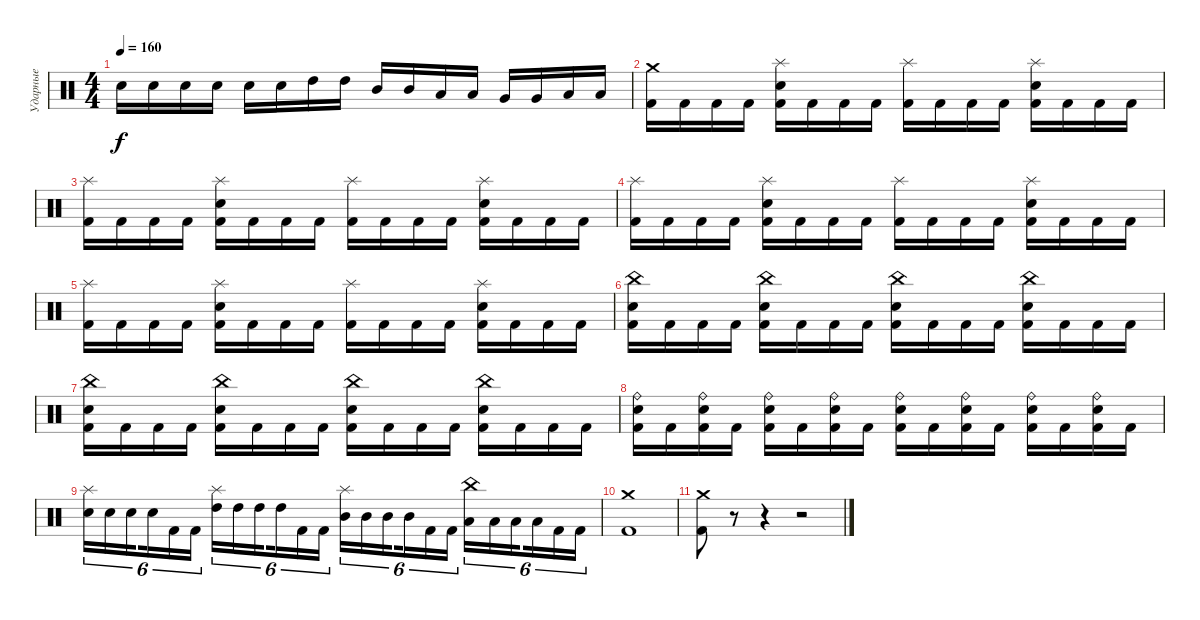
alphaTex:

\track ("Ударные" "Ударные") {instrument percussion}
\staff {score}
\articulation defaults
\ts (4 4)
\tempo 160
\clef neutral
\ks c "Electric Snare (hit)".16{dy f} "Electric Snare (hit)".16 "Electric Snare (hit)".16 "Electric Snare (hit)".16 "Electric Snare (hit)".16 "Electric Snare (hit)".16 "High Tom (hit)".16 "High Tom (hit)".16 "Mid Tom (hit)".16 "Mid Tom (hit)".16 "Low Tom (hit)".16 "Low Tom (hit)".16 "Very Low Tom (hit)".16 "Very Low Tom (hit)".16 "Low Floor Tom (hit)".16 "Low Floor Tom (hit)".16
|
("Crash medium (hit)" "Kick (hit) 2").16 "Kick (hit) 2".16 "Kick (hit) 2".16 "Kick (hit) 2".16 ("Splash (hit)" "Electric Snare (hit)" "Kick (hit) 2").16 "Kick (hit) 2".16 "Kick (hit) 2".16 "Kick (hit) 2".16 ("Splash (hit)" "Kick (hit) 2").16 "Kick (hit) 2".16 "Kick (hit) 2".16 "Kick (hit) 2".16 ("Splash (hit)" "Electric Snare (hit)" "Kick (hit) 2").16 "Kick (hit) 2".16 "Kick (hit) 2".16 "Kick (hit) 2".16 |
("Splash (hit)" "Kick (hit) 2").16 "Kick (hit) 2".16 "Kick (hit) 2".16 "Kick (hit) 2".16 ("Splash (hit)" "Electric Snare (hit)" "Kick (hit) 2").16 "Kick (hit) 2".16 "Kick (hit) 2".16 "Kick (hit) 2".16 ("Splash (hit)" "Kick (hit) 2").16 "Kick (hit) 2".16 "Kick (hit) 2".16 "Kick (hit) 2".16 ("Splash (hit)" "Electric Snare (hit)" "Kick (hit) 2").16 "Kick (hit) 2".16 "Kick (hit) 2".16 "Kick (hit) 2".16 |
("Splash (hit)" "Kick (hit) 2").16 "Kick (hit) 2".16 "Kick (hit) 2".16 "Kick (hit) 2".16 ("Splash (hit)" "Electric Snare (hit)" "Kick (hit) 2").16 "Kick (hit) 2".16 "Kick (hit) 2".16 "Kick (hit) 2".16 ("Splash (hit)" "Kick (hit) 2").16 "Kick (hit) 2".16 "Kick (hit) 2".16 "Kick (hit) 2".16 ("Splash (hit)" "Electric Snare (hit)" "Kick (hit) 2").16 "Kick (hit) 2".16 "Kick (hit) 2".16 "Kick (hit) 2".16 |
("Splash (hit)" "Kick (hit) 2").16 "Kick (hit) 2".16 "Kick (hit) 2".16 "Kick (hit) 2".16 ("Splash (hit)" "Electric Snare (hit)" "Kick (hit) 2").16 "Kick (hit) 2".16 "Kick (hit) 2".16 "Kick (hit) 2".16 ("Splash (hit)" "Kick (hit) 2").16 "Kick (hit) 2".16 "Kick (hit) 2".16 "Kick (hit) 2".16 ("Splash (hit)" "Electric Snare (hit)" "Kick (hit) 2").16 "Kick (hit) 2".16 "Kick (hit) 2".16 "Kick (hit) 2".16 |
("China (hit)" "Electric Snare (hit)" "Kick (hit) 2").16 "Kick (hit) 2".16 "Kick (hit) 2".16 "Kick (hit) 2".16 ("China (hit)" "Electric Snare (hit)" "Kick (hit) 2").16 "Kick (hit) 2".16 "Kick (hit) 2".16 "Kick (hit) 2".16 ("China (hit)" "Electric Snare (hit)" "Kick (hit) 2").16 "Kick (hit) 2".16 "Kick (hit) 2".16 "Kick (hit) 2".16 ("China (hit)" "Electric Snare (hit)" "Kick (hit) 2").16 "Kick (hit) 2".16 "Kick (hit) 2".16 "Kick (hit) 2".16 |
("China (hit)" "Electric Snare (hit)" "Kick (hit) 2").16 "Kick (hit) 2".16 "Kick (hit) 2".16 "Kick (hit) 2".16 ("China (hit)" "Electric Snare (hit)" "Kick (hit) 2").16 "Kick (hit) 2".16 "Kick (hit) 2".16 "Kick (hit) 2".16 ("China (hit)" "Electric Snare (hit)" "Kick (hit) 2").16 "Kick (hit) 2".16 "Kick (hit) 2".16 "Kick (hit) 2".16 ("China (hit)" "Electric Snare (hit)" "Kick (hit) 2").16 "Kick (hit) 2".16 "Kick (hit) 2".16 "Kick (hit) 2".16 |
("Ride (bell)" "Electric Snare (hit)" "Kick (hit) 2").16 "Kick (hit) 2".16 ("Ride (bell)" "Electric Snare (hit)" "Kick (hit) 2").16 "Kick (hit) 2".16 ("Ride (bell)" "Electric Snare (hit)" "Kick (hit) 2").16 "Kick (hit) 2".16 ("Ride (bell)" "Electric Snare (hit)" "Kick (hit) 2").16 "Kick (hit) 2".16 ("Ride (bell)" "Electric Snare (hit)" "Kick (hit) 2").16 "Kick (hit) 2".16 ("Ride (bell)" "Electric Snare (hit)" "Kick (hit) 2").16 "Kick (hit) 2".16 ("Ride (bell)" "Electric Snare (hit)" "Kick (hit) 2").16 "Kick (hit) 2".16 ("Ride (bell)" "Electric Snare (hit)" "Kick (hit) 2").16 "Kick (hit) 2".16 |
("Electric Snare (hit)" "Splash (hit)").16{tu (6 4)} "Electric Snare (hit)".16{tu (6 4)} "Electric Snare (hit)".16{tu (6 4) beam splitsecondary} "Electric Snare (hit)".16{tu (6 4)} "Kick (hit) 2".16{tu (6 4)} "Kick (hit) 2".16{tu (6 4)} ("High Tom (hit)" "Splash (hit)").16{tu (6 4)} "High Tom (hit)".16{tu (6 4)} "High Tom (hit)".16{tu (6 4) beam splitsecondary} "High Tom (hit)".16{tu (6 4)} "Kick (hit) 2".16{tu (6 4)} "Kick (hit) 2".16{tu (6 4)} ("Mid Tom (hit)" "Splash (hit)").16{tu (6 4)} "Mid Tom (hit)".16{tu (6 4)} "Mid Tom (hit)".16{tu (6 4) beam splitsecondary} "Mid Tom (hit)".16{tu (6 4)} "Kick (hit) 2".16{tu (6 4)} "Kick (hit) 2".16{tu (6 4)} ("Low Tom (hit)" "China (hit)").16{tu (6 4)} "Low Tom (hit)".16{tu (6 4)} "Low Tom (hit)".16{tu (6 4) beam splitsecondary} "Low Tom (hit)".16{tu (6 4)} "Kick (hit) 2".16{tu (6 4)} "Kick (hit) 2".16{tu (6 4)} |
("Crash medium (hit)" "Kick (hit) 2").1 |
("Crash medium (hit)" "Kick (hit) 2").8 r.8 r.4 r.2
